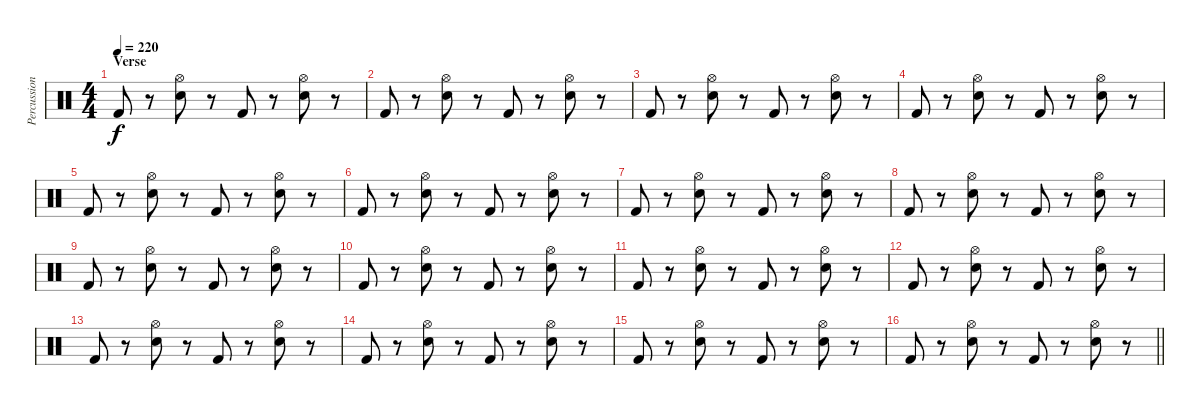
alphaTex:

\track ("Percussion" "Percussion") {instrument percussion}
\staff {score}
\articulation defaults
\ts (4 4)
\section ("" "Verse")
\tempo 220
\clef neutral
\ks c "Kick (hit) 2".8{dy f}
r.8 ("Hi-Hat (open)" "Snare (hit) 2").8 r.8 "Kick (hit) 2".8 r.8 ("Hi-Hat (open)" "Snare (hit) 2").8 r.8 |
"Kick (hit) 2".8 r.8 ("Hi-Hat (open)" "Snare (hit) 2").8 r.8 "Kick (hit) 2".8 r.8 ("Hi-Hat (open)" "Snare (hit) 2").8 r.8 |
"Kick (hit) 2".8 r.8 ("Hi-Hat (open)" "Snare (hit) 2").8 r.8 "Kick (hit) 2".8 r.8 ("Hi-Hat (open)" "Snare (hit) 2").8 r.8 |
"Kick (hit) 2".8 r.8 ("Hi-Hat (open)" "Snare (hit) 2").8 r.8 "Kick (hit) 2".8 r.8 ("Hi-Hat (open)" "Snare (hit) 2").8 r.8 |
"Kick (hit) 2".8 r.8 ("Hi-Hat (open)" "Snare (hit) 2").8 r.8 "Kick (hit) 2".8 r.8 ("Hi-Hat (open)" "Snare (hit) 2").8 r.8 |
"Kick (hit) 2".8 r.8 ("Hi-Hat (open)" "Snare (hit) 2").8 r.8 "Kick (hit) 2".8 r.8 ("Hi-Hat (open)" "Snare (hit) 2").8 r.8 |
"Kick (hit) 2".8 r.8 ("Hi-Hat (open)" "Snare (hit) 2").8 r.8 "Kick (hit) 2".8 r.8 ("Hi-Hat (open)" "Snare (hit) 2").8 r.8 |
"Kick (hit) 2".8 r.8 ("Hi-Hat (open)" "Snare (hit) 2").8 r.8 "Kick (hit) 2".8 r.8 ("Hi-Hat (open)" "Snare (hit) 2").8 r.8 |
"Kick (hit) 2".8 r.8 ("Hi-Hat (open)" "Snare (hit) 2").8 r.8 "Kick (hit) 2".8 r.8 ("Hi-Hat (open)" "Snare (hit) 2").8 r.8 |
"Kick (hit) 2".8 r.8 ("Hi-Hat (open)" "Snare (hit) 2").8 r.8 "Kick (hit) 2".8 r.8 ("Hi-Hat (open)" "Snare (hit) 2").8 r.8 |
"Kick (hit) 2".8 r.8 ("Hi-Hat (open)" "Snare (hit) 2").8 r.8 "Kick (hit) 2".8 r.8 ("Hi-Hat (open)" "Snare (hit) 2").8 r.8 |
"Kick (hit) 2".8 r.8 ("Hi-Hat (open)" "Snare (hit) 2").8 r.8 "Kick (hit) 2".8 r.8 ("Hi-Hat (open)" "Snare (hit) 2").8 r.8 |
"Kick (hit) 2".8 r.8 ("Hi-Hat (open)" "Snare (hit) 2").8 r.8 "Kick (hit) 2".8 r.8 ("Hi-Hat (open)" "Snare (hit) 2").8 r.8 |
"Kick (hit) 2".8 r.8 ("Hi-Hat (open)" "Snare (hit) 2").8 r.8 "Kick (hit) 2".8 r.8 ("Hi-Hat (open)" "Snare (hit) 2").8 r.8 |
"Kick (hit) 2".8 r.8 ("Hi-Hat (open)" "Snare (hit) 2").8 r.8 "Kick (hit) 2".8 r.8 ("Hi-Hat (open)" "Snare (hit) 2").8 r.8 |
\barLineRight lightlight "Kick (hit) 2".8
r.8 ("Hi-Hat (open)" "Snare (hit) 2").8 r.8 "Kick (hit) 2".8 r.8 ("Hi-Hat (open)" "Snare (hit) 2").8 r.8
